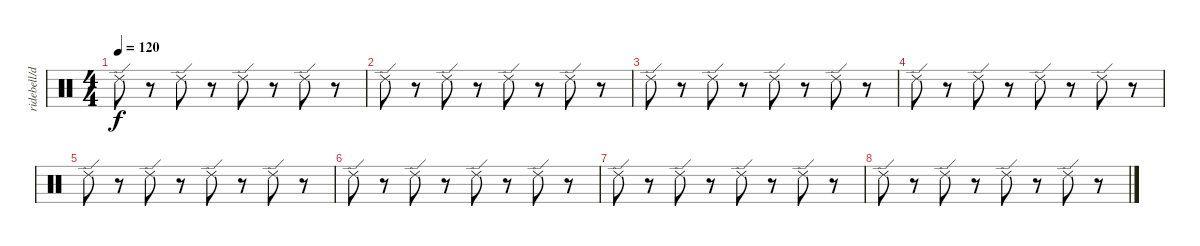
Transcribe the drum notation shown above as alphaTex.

\track ("ridebell/drum" "ridebell/d") {instrument percussion}
\staff {score}
\articulation defaults
\ts (4 4)
\tempo 120
\clef neutral
\ks c "Ride (edge) 2".8{dy f}
r.8 "Ride (edge) 2".8 r.8 "Ride (edge) 2".8 r.8 "Ride (edge) 2".8 r.8 |
"Ride (edge) 2".8 r.8 "Ride (edge) 2".8 r.8 "Ride (edge) 2".8 r.8 "Ride (edge) 2".8 r.8 |
"Ride (edge) 2".8 r.8 "Ride (edge) 2".8 r.8 "Ride (edge) 2".8 r.8 "Ride (edge) 2".8 r.8 |
"Ride (edge) 2".8 r.8 "Ride (edge) 2".8 r.8 "Ride (edge) 2".8 r.8 "Ride (edge) 2".8 r.8 |
"Ride (edge) 2".8 r.8 "Ride (edge) 2".8 r.8 "Ride (edge) 2".8 r.8 "Ride (edge) 2".8 r.8 |
"Ride (edge) 2".8 r.8 "Ride (edge) 2".8 r.8 "Ride (edge) 2".8 r.8 "Ride (edge) 2".8 r.8 |
"Ride (edge) 2".8 r.8 "Ride (edge) 2".8 r.8 "Ride (edge) 2".8 r.8 "Ride (edge) 2".8 r.8 |
"Ride (edge) 2".8 r.8 "Ride (edge) 2".8 r.8 "Ride (edge) 2".8 r.8 "Ride (edge) 2".8 r.8
